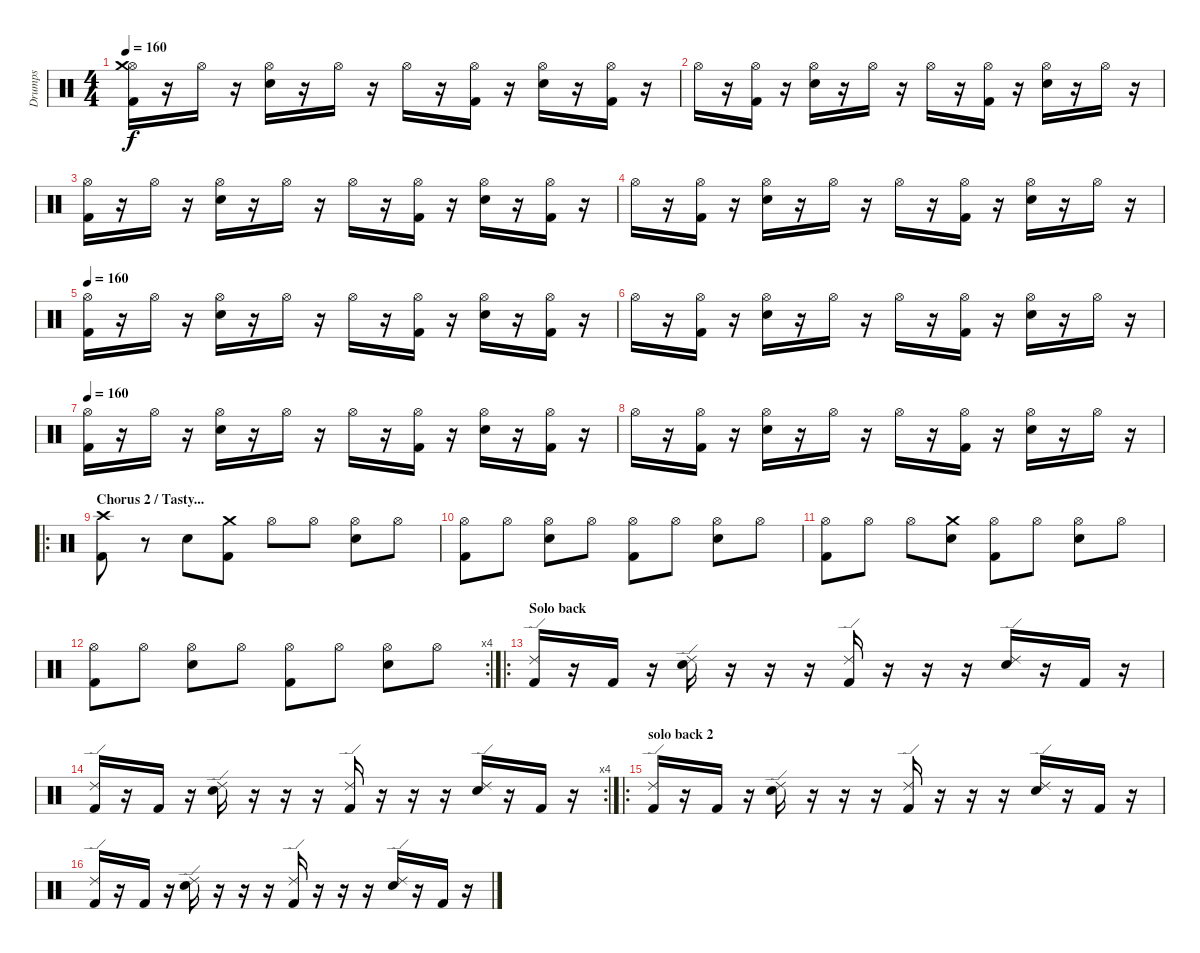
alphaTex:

\track ("Drumps" "Drumps") {instrument percussion}
\staff {score}
\articulation defaults
\ts (4 4)
\tempo 160
\clef neutral
\ks c
("Hi-Hat (open)" "Crash medium (hit)" "Kick (hit) 2").16{dy f} r.16 "Hi-Hat (open)".16 r.16 ("Hi-Hat (open)" "Electric Snare (hit)").16 r.16 "Hi-Hat (open)".16 r.16 "Hi-Hat (open)".16 r.16 ("Hi-Hat (open)" "Kick (hit) 2").16 r.16 ("Hi-Hat (open)" "Electric Snare (hit)").16 r.16 ("Hi-Hat (open)" "Kick (hit) 2").16 r.16 |
"Hi-Hat (open)".16 r.16 ("Hi-Hat (open)" "Kick (hit) 2").16 r.16 ("Hi-Hat (open)" "Electric Snare (hit)").16 r.16 "Hi-Hat (open)".16 r.16 "Hi-Hat (open)".16 r.16 ("Hi-Hat (open)" "Kick (hit) 2").16 r.16 ("Hi-Hat (open)" "Electric Snare (hit)").16 r.16 "Hi-Hat (open)".16 r.16 |
("Hi-Hat (open)" "Kick (hit) 2").16 r.16 "Hi-Hat (open)".16 r.16 ("Hi-Hat (open)" "Electric Snare (hit)").16 r.16 "Hi-Hat (open)".16 r.16 "Hi-Hat (open)".16 r.16 ("Hi-Hat (open)" "Kick (hit) 2").16 r.16 ("Hi-Hat (open)" "Electric Snare (hit)").16 r.16 ("Hi-Hat (open)" "Kick (hit) 2").16 r.16 |
"Hi-Hat (open)".16 r.16 ("Hi-Hat (open)" "Kick (hit) 2").16 r.16 ("Hi-Hat (open)" "Electric Snare (hit)").16 r.16 "Hi-Hat (open)".16 r.16 "Hi-Hat (open)".16 r.16 ("Hi-Hat (open)" "Kick (hit) 2").16 r.16 ("Hi-Hat (open)" "Electric Snare (hit)").16 r.16 "Hi-Hat (open)".16 r.16 |
\tempo 160
("Hi-Hat (open)" "Kick (hit) 2").16 r.16 "Hi-Hat (open)".16 r.16 ("Hi-Hat (open)" "Electric Snare (hit)").16 r.16 "Hi-Hat (open)".16 r.16 "Hi-Hat (open)".16 r.16 ("Hi-Hat (open)" "Kick (hit) 2").16 r.16 ("Hi-Hat (open)" "Electric Snare (hit)").16 r.16 ("Hi-Hat (open)" "Kick (hit) 2").16 r.16 |
"Hi-Hat (open)".16 r.16 ("Hi-Hat (open)" "Kick (hit) 2").16 r.16 ("Hi-Hat (open)" "Electric Snare (hit)").16 r.16 "Hi-Hat (open)".16 r.16 "Hi-Hat (open)".16 r.16 ("Hi-Hat (open)" "Kick (hit) 2").16 r.16 ("Hi-Hat (open)" "Electric Snare (hit)").16 r.16 "Hi-Hat (open)".16 r.16 |
\tempo 160
("Hi-Hat (open)" "Kick (hit) 2").16 r.16 "Hi-Hat (open)".16 r.16 ("Hi-Hat (open)" "Electric Snare (hit)").16 r.16 "Hi-Hat (open)".16 r.16 "Hi-Hat (open)".16 r.16 ("Hi-Hat (open)" "Kick (hit) 2").16 r.16 ("Hi-Hat (open)" "Electric Snare (hit)").16 r.16 ("Hi-Hat (open)" "Kick (hit) 2").16 r.16 |
"Hi-Hat (open)".16 r.16 ("Hi-Hat (open)" "Kick (hit) 2").16 r.16 ("Hi-Hat (open)" "Electric Snare (hit)").16 r.16 "Hi-Hat (open)".16 r.16 "Hi-Hat (open)".16 r.16 ("Hi-Hat (open)" "Kick (hit) 2").16 r.16 ("Hi-Hat (open)" "Electric Snare (hit)").16 r.16 "Hi-Hat (open)".16 r.16 |
\ro
\section ("" "Chorus 2 / Tasty...")
("Crash high (hit)" "Kick (hit) 2").8 r.8 "Electric Snare (hit)".8 ("Crash medium (hit)" "Kick (hit) 2").8 "Hi-Hat (open)".8 "Hi-Hat (open)".8 ("Hi-Hat (open)" "Electric Snare (hit)").8 "Hi-Hat (open)".8 |
("Hi-Hat (open)" "Kick (hit) 2").8 "Hi-Hat (open)".8 ("Hi-Hat (open)" "Electric Snare (hit)").8 "Hi-Hat (open)".8 ("Hi-Hat (open)" "Kick (hit) 2").8 "Hi-Hat (open)".8 ("Hi-Hat (open)" "Electric Snare (hit)").8 "Hi-Hat (open)".8 |
("Hi-Hat (open)" "Kick (hit) 2").8 "Hi-Hat (open)".8 "Hi-Hat (open)".8 ("Crash medium (hit)" "Electric Snare (hit)").8 ("Hi-Hat (open)" "Kick (hit) 2").8 "Hi-Hat (open)".8 ("Hi-Hat (open)" "Electric Snare (hit)").8 "Hi-Hat (open)".8 |
\rc 4
("Hi-Hat (open)" "Kick (hit) 2").8 "Hi-Hat (open)".8 ("Hi-Hat (open)" "Electric Snare (hit)").8 "Hi-Hat (open)".8 ("Hi-Hat (open)" "Kick (hit) 2").8 "Hi-Hat (open)".8 ("Hi-Hat (open)" "Electric Snare (hit)").8 "Hi-Hat (open)".8 |
\ro
\section ("" "Solo back")
("Ride (edge) 2" "Kick (hit) 2").16 r.16 "Kick (hit) 2".16 r.16 ("Ride (edge) 2" "Electric Snare (hit)").16 r.16 r.16 r.16 ("Ride (edge) 2" "Kick (hit) 2").16 r.16 r.16 r.16 ("Ride (edge) 2" "Electric Snare (hit)").16 r.16 "Kick (hit) 2".16 r.16 |
\rc 4
("Ride (edge) 2" "Kick (hit) 2").16 r.16 "Kick (hit) 2".16 r.16 ("Ride (edge) 2" "Electric Snare (hit)").16 r.16 r.16 r.16 ("Ride (edge) 2" "Kick (hit) 2").16 r.16 r.16 r.16 ("Ride (edge) 2" "Electric Snare (hit)").16 r.16 "Kick (hit) 2".16 r.16 |
\ro
\section ("" "solo back 2")
("Ride (edge) 2" "Kick (hit) 2").16 r.16 "Kick (hit) 2".16 r.16 ("Ride (edge) 2" "Electric Snare (hit)").16 r.16 r.16 r.16 ("Ride (edge) 2" "Kick (hit) 2").16 r.16 r.16 r.16 ("Ride (edge) 2" "Electric Snare (hit)").16 r.16 "Kick (hit) 2".16 r.16 |
("Ride (edge) 2" "Kick (hit) 2").16 r.16 "Kick (hit) 2".16 r.16 ("Ride (edge) 2" "Electric Snare (hit)").16 r.16 r.16 r.16 ("Ride (edge) 2" "Kick (hit) 2").16 r.16 r.16 r.16 ("Ride (edge) 2" "Electric Snare (hit)").16 r.16 "Kick (hit) 2".16 r.16
